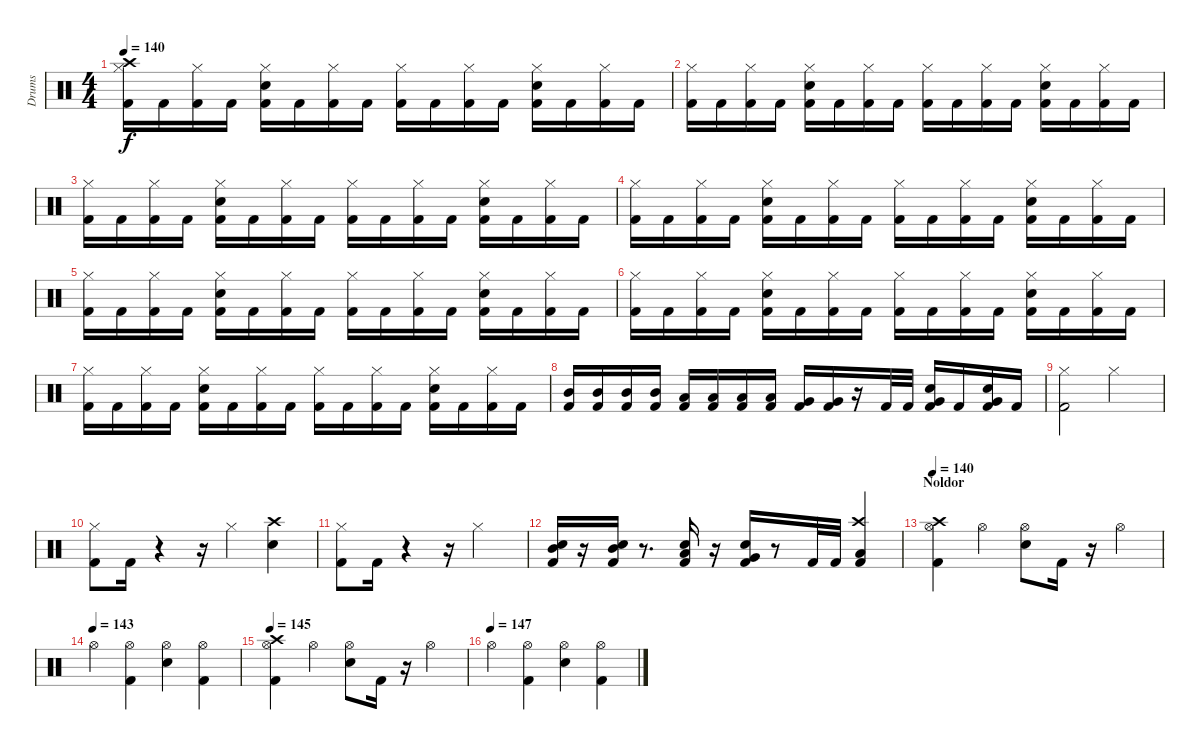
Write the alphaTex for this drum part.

\track ("Drums" "Drums") {instrument percussion}
\staff {score}
\articulation defaults
\ts (4 4)
\tempo 140
\clef neutral
\ks c
("Kick (hit) 2" "Hi-Hat (closed)" "Crash high (hit)").16{dy f} "Kick (hit) 2".16 ("Kick (hit) 2" "Hi-Hat (closed)").16 "Kick (hit) 2".16 ("Kick (hit) 2" "Snare (hit) 2" "Hi-Hat (closed)").16 "Kick (hit) 2".16 ("Kick (hit) 2" "Hi-Hat (closed)").16 "Kick (hit) 2".16 ("Kick (hit) 2" "Hi-Hat (closed)").16 "Kick (hit) 2".16 ("Kick (hit) 2" "Hi-Hat (closed)").16 "Kick (hit) 2".16 ("Kick (hit) 2" "Snare (hit) 2" "Hi-Hat (closed)").16 "Kick (hit) 2".16 ("Kick (hit) 2" "Hi-Hat (closed)").16 "Kick (hit) 2".16 |
("Kick (hit) 2" "Hi-Hat (closed)").16 "Kick (hit) 2".16 ("Kick (hit) 2" "Hi-Hat (closed)").16 "Kick (hit) 2".16 ("Kick (hit) 2" "Snare (hit) 2" "Hi-Hat (closed)").16 "Kick (hit) 2".16 ("Kick (hit) 2" "Hi-Hat (closed)").16 "Kick (hit) 2".16 ("Kick (hit) 2" "Hi-Hat (closed)").16 "Kick (hit) 2".16 ("Kick (hit) 2" "Hi-Hat (closed)").16 "Kick (hit) 2".16 ("Kick (hit) 2" "Snare (hit) 2" "Hi-Hat (closed)").16 "Kick (hit) 2".16 ("Kick (hit) 2" "Hi-Hat (closed)").16 "Kick (hit) 2".16 |
("Kick (hit) 2" "Hi-Hat (closed)").16 "Kick (hit) 2".16 ("Kick (hit) 2" "Hi-Hat (closed)").16 "Kick (hit) 2".16 ("Kick (hit) 2" "Snare (hit) 2" "Hi-Hat (closed)").16 "Kick (hit) 2".16 ("Kick (hit) 2" "Hi-Hat (closed)").16 "Kick (hit) 2".16 ("Kick (hit) 2" "Hi-Hat (closed)").16 "Kick (hit) 2".16 ("Kick (hit) 2" "Hi-Hat (closed)").16 "Kick (hit) 2".16 ("Kick (hit) 2" "Snare (hit) 2" "Hi-Hat (closed)").16 "Kick (hit) 2".16 ("Kick (hit) 2" "Hi-Hat (closed)").16 "Kick (hit) 2".16 |
("Kick (hit) 2" "Hi-Hat (closed)").16 "Kick (hit) 2".16 ("Kick (hit) 2" "Hi-Hat (closed)").16 "Kick (hit) 2".16 ("Kick (hit) 2" "Snare (hit) 2" "Hi-Hat (closed)").16 "Kick (hit) 2".16 ("Kick (hit) 2" "Hi-Hat (closed)").16 "Kick (hit) 2".16 ("Kick (hit) 2" "Hi-Hat (closed)").16 "Kick (hit) 2".16 ("Kick (hit) 2" "Hi-Hat (closed)").16 "Kick (hit) 2".16 ("Kick (hit) 2" "Snare (hit) 2" "Hi-Hat (closed)").16 "Kick (hit) 2".16 ("Kick (hit) 2" "Hi-Hat (closed)").16 "Kick (hit) 2".16 |
("Kick (hit) 2" "Hi-Hat (closed)").16 "Kick (hit) 2".16 ("Kick (hit) 2" "Hi-Hat (closed)").16 "Kick (hit) 2".16 ("Kick (hit) 2" "Snare (hit) 2" "Hi-Hat (closed)").16 "Kick (hit) 2".16 ("Kick (hit) 2" "Hi-Hat (closed)").16 "Kick (hit) 2".16 ("Kick (hit) 2" "Hi-Hat (closed)").16 "Kick (hit) 2".16 ("Kick (hit) 2" "Hi-Hat (closed)").16 "Kick (hit) 2".16 ("Kick (hit) 2" "Snare (hit) 2" "Hi-Hat (closed)").16 "Kick (hit) 2".16 ("Kick (hit) 2" "Hi-Hat (closed)").16 "Kick (hit) 2".16 |
("Kick (hit) 2" "Hi-Hat (closed)").16 "Kick (hit) 2".16 ("Kick (hit) 2" "Hi-Hat (closed)").16 "Kick (hit) 2".16 ("Kick (hit) 2" "Snare (hit) 2" "Hi-Hat (closed)").16 "Kick (hit) 2".16 ("Kick (hit) 2" "Hi-Hat (closed)").16 "Kick (hit) 2".16 ("Kick (hit) 2" "Hi-Hat (closed)").16 "Kick (hit) 2".16 ("Kick (hit) 2" "Hi-Hat (closed)").16 "Kick (hit) 2".16 ("Kick (hit) 2" "Snare (hit) 2" "Hi-Hat (closed)").16 "Kick (hit) 2".16 ("Kick (hit) 2" "Hi-Hat (closed)").16 "Kick (hit) 2".16 |
("Kick (hit) 2" "Hi-Hat (closed)").16 "Kick (hit) 2".16 ("Kick (hit) 2" "Hi-Hat (closed)").16 "Kick (hit) 2".16 ("Kick (hit) 2" "Snare (hit) 2" "Hi-Hat (closed)").16 "Kick (hit) 2".16 ("Kick (hit) 2" "Hi-Hat (closed)").16 "Kick (hit) 2".16 ("Kick (hit) 2" "Hi-Hat (closed)").16 "Kick (hit) 2".16 ("Kick (hit) 2" "Hi-Hat (closed)").16 "Kick (hit) 2".16 ("Kick (hit) 2" "Snare (hit) 2" "Hi-Hat (closed)").16 "Kick (hit) 2".16 ("Kick (hit) 2" "Hi-Hat (closed)").16 "Kick (hit) 2".16 |
("Kick (hit) 2" "Mid Tom (hit)").16 ("Kick (hit) 2" "Mid Tom (hit)").16 ("Kick (hit) 2" "Mid Tom (hit)").16 ("Kick (hit) 2" "Mid Tom (hit)").16 ("Kick (hit) 2" "Low Tom (hit)").16 ("Kick (hit) 2" "Low Tom (hit)").16 ("Kick (hit) 2" "Low Tom (hit)").16 ("Kick (hit) 2" "Low Tom (hit)").16 ("Kick (hit) 2" "Very Low Tom (hit)").16 ("Kick (hit) 2" "Very Low Tom (hit)").16 r.16 "Kick (hit) 2".32 "Kick (hit) 2".32 ("Kick (hit) 2" "Snare (hit) 2" "Very Low Tom (hit)").16 "Kick (hit) 2".16 ("Kick (hit) 2" "Snare (hit) 2" "Very Low Tom (hit)").16 "Kick (hit) 2".16 |
("Kick (hit) 2" "Hi-Hat (closed)").2 "Hi-Hat (closed)".2 |
("Kick (hit) 2" "Hi-Hat (closed)").8 "Kick (hit) 2".16 r.4 r.16 "Hi-Hat (closed)".4 ("Snare (hit) 2" "Crash high (hit)").4 |
("Kick (hit) 2" "Hi-Hat (closed)").8 "Kick (hit) 2".16 r.4 r.16 "Hi-Hat (closed)".2 |
("Kick (hit) 2" "Snare (hit) 2" "Mid Tom (hit)").16 r.16 ("Kick (hit) 2" "Snare (hit) 2" "Mid Tom (hit)").16 r.8{d} ("Kick (hit) 2" "Snare (hit) 2" "Low Tom (hit)").16 r.16 ("Kick (hit) 2" "Snare (hit) 2" "Very Low Tom (hit)").16 r.8 "Kick (hit) 2".32 "Kick (hit) 2".32 ("Kick (hit) 2" "Low Floor Tom (hit)" "Crash high (hit)").4 |
\section ("" "Noldor")
\tempo 140
("Kick (hit) 2" "Hi-Hat (open)" "Crash high (hit)").4{volume 13} "Hi-Hat (open)".4 ("Electric Snare (hit)" "Hi-Hat (open)").8 "Kick (hit) 2".16 r.16 "Hi-Hat (open)".4 |
\tempo (143)
"Hi-Hat (open)".4 ("Kick (hit) 2" "Hi-Hat (open)").4 ("Electric Snare (hit)" "Hi-Hat (open)").4 ("Kick (hit) 2" "Hi-Hat (open)").4 |
\tempo 145
("Kick (hit) 2" "Hi-Hat (open)" "Crash high (hit)").4 "Hi-Hat (open)".4 ("Electric Snare (hit)" "Hi-Hat (open)").8 "Kick (hit) 2".16 r.16 "Hi-Hat (open)".4 |
\tempo (147)
"Hi-Hat (open)".4 ("Kick (hit) 2" "Hi-Hat (open)").4 ("Electric Snare (hit)" "Hi-Hat (open)").4 ("Kick (hit) 2" "Hi-Hat (open)").4
